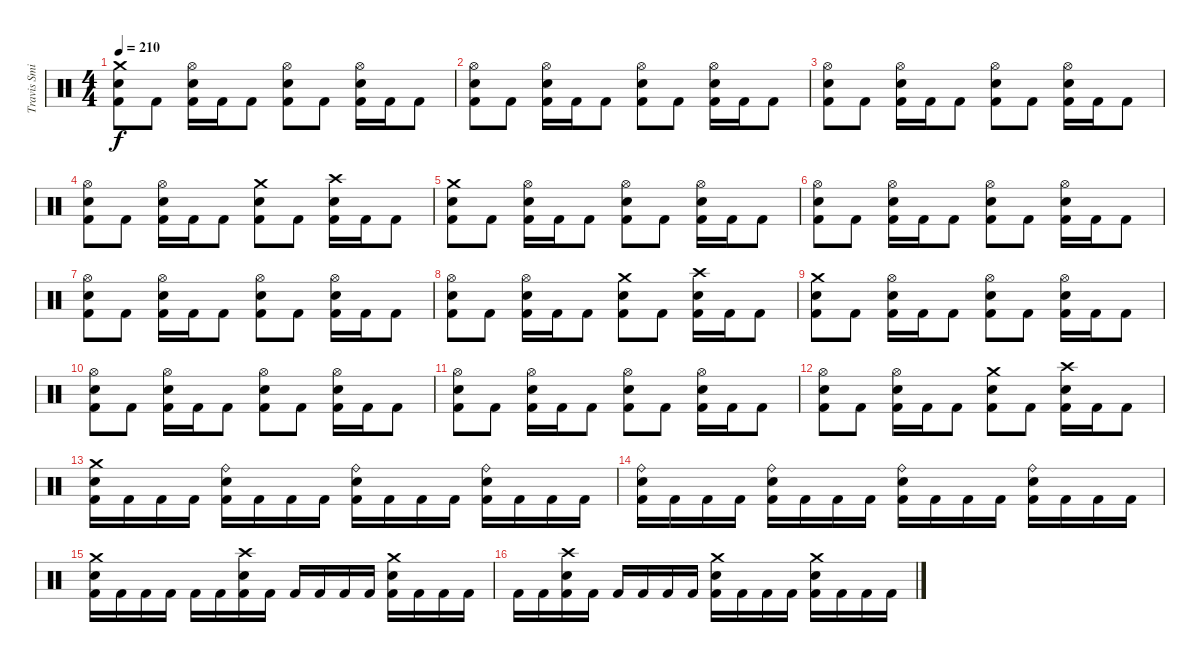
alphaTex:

\track ("Travis Smith" "Travis Smi") {instrument percussion}
\staff {score}
\articulation defaults
\ts (4 4)
\tempo 210
\clef neutral
\ks c
("Crash medium (hit)" "Electric Snare (hit)" "Kick (hit) 2").8{dy f} "Kick (hit) 2".8 ("Hi-Hat (open)" "Electric Snare (hit)" "Kick (hit) 2").16 "Kick (hit) 2".16 "Kick (hit) 2".8 ("Hi-Hat (open)" "Electric Snare (hit)" "Kick (hit) 2").8 "Kick (hit) 2".8 ("Hi-Hat (open)" "Electric Snare (hit)" "Kick (hit) 2").16 "Kick (hit) 2".16 "Kick (hit) 2".8 |
("Hi-Hat (open)" "Electric Snare (hit)" "Kick (hit) 2").8 "Kick (hit) 2".8 ("Hi-Hat (open)" "Electric Snare (hit)" "Kick (hit) 2").16 "Kick (hit) 2".16 "Kick (hit) 2".8 ("Hi-Hat (open)" "Electric Snare (hit)" "Kick (hit) 2").8 "Kick (hit) 2".8 ("Hi-Hat (open)" "Electric Snare (hit)" "Kick (hit) 2").16 "Kick (hit) 2".16 "Kick (hit) 2".8 |
("Hi-Hat (open)" "Electric Snare (hit)" "Kick (hit) 2").8 "Kick (hit) 2".8 ("Hi-Hat (open)" "Electric Snare (hit)" "Kick (hit) 2").16 "Kick (hit) 2".16 "Kick (hit) 2".8 ("Hi-Hat (open)" "Electric Snare (hit)" "Kick (hit) 2").8 "Kick (hit) 2".8 ("Hi-Hat (open)" "Electric Snare (hit)" "Kick (hit) 2").16 "Kick (hit) 2".16 "Kick (hit) 2".8 |
("Hi-Hat (open)" "Electric Snare (hit)" "Kick (hit) 2").8 "Kick (hit) 2".8 ("Hi-Hat (open)" "Electric Snare (hit)" "Kick (hit) 2").16 "Kick (hit) 2".16 "Kick (hit) 2".8 ("Crash medium (hit)" "Electric Snare (hit)" "Kick (hit) 2").8 "Kick (hit) 2".8 ("Crash high (hit)" "Electric Snare (hit)" "Kick (hit) 2").16 "Kick (hit) 2".16 "Kick (hit) 2".8 |
("Crash medium (hit)" "Electric Snare (hit)" "Kick (hit) 2").8 "Kick (hit) 2".8 ("Hi-Hat (open)" "Electric Snare (hit)" "Kick (hit) 2").16 "Kick (hit) 2".16 "Kick (hit) 2".8 ("Hi-Hat (open)" "Electric Snare (hit)" "Kick (hit) 2").8 "Kick (hit) 2".8 ("Hi-Hat (open)" "Electric Snare (hit)" "Kick (hit) 2").16 "Kick (hit) 2".16 "Kick (hit) 2".8 |
("Hi-Hat (open)" "Electric Snare (hit)" "Kick (hit) 2").8 "Kick (hit) 2".8 ("Hi-Hat (open)" "Electric Snare (hit)" "Kick (hit) 2").16 "Kick (hit) 2".16 "Kick (hit) 2".8 ("Hi-Hat (open)" "Electric Snare (hit)" "Kick (hit) 2").8 "Kick (hit) 2".8 ("Hi-Hat (open)" "Electric Snare (hit)" "Kick (hit) 2").16 "Kick (hit) 2".16 "Kick (hit) 2".8 |
("Hi-Hat (open)" "Electric Snare (hit)" "Kick (hit) 2").8 "Kick (hit) 2".8 ("Hi-Hat (open)" "Electric Snare (hit)" "Kick (hit) 2").16 "Kick (hit) 2".16 "Kick (hit) 2".8 ("Hi-Hat (open)" "Electric Snare (hit)" "Kick (hit) 2").8 "Kick (hit) 2".8 ("Hi-Hat (open)" "Electric Snare (hit)" "Kick (hit) 2").16 "Kick (hit) 2".16 "Kick (hit) 2".8 |
("Hi-Hat (open)" "Electric Snare (hit)" "Kick (hit) 2").8 "Kick (hit) 2".8 ("Hi-Hat (open)" "Electric Snare (hit)" "Kick (hit) 2").16 "Kick (hit) 2".16 "Kick (hit) 2".8 ("Crash medium (hit)" "Electric Snare (hit)" "Kick (hit) 2").8 "Kick (hit) 2".8 ("Crash high (hit)" "Electric Snare (hit)" "Kick (hit) 2").16 "Kick (hit) 2".16 "Kick (hit) 2".8 |
("Crash medium (hit)" "Electric Snare (hit)" "Kick (hit) 2").8 "Kick (hit) 2".8 ("Hi-Hat (open)" "Electric Snare (hit)" "Kick (hit) 2").16 "Kick (hit) 2".16 "Kick (hit) 2".8 ("Hi-Hat (open)" "Electric Snare (hit)" "Kick (hit) 2").8 "Kick (hit) 2".8 ("Hi-Hat (open)" "Electric Snare (hit)" "Kick (hit) 2").16 "Kick (hit) 2".16 "Kick (hit) 2".8 |
("Hi-Hat (open)" "Electric Snare (hit)" "Kick (hit) 2").8 "Kick (hit) 2".8 ("Hi-Hat (open)" "Electric Snare (hit)" "Kick (hit) 2").16 "Kick (hit) 2".16 "Kick (hit) 2".8 ("Hi-Hat (open)" "Electric Snare (hit)" "Kick (hit) 2").8 "Kick (hit) 2".8 ("Hi-Hat (open)" "Electric Snare (hit)" "Kick (hit) 2").16 "Kick (hit) 2".16 "Kick (hit) 2".8 |
("Hi-Hat (open)" "Electric Snare (hit)" "Kick (hit) 2").8 "Kick (hit) 2".8 ("Hi-Hat (open)" "Electric Snare (hit)" "Kick (hit) 2").16 "Kick (hit) 2".16 "Kick (hit) 2".8 ("Hi-Hat (open)" "Electric Snare (hit)" "Kick (hit) 2").8 "Kick (hit) 2".8 ("Hi-Hat (open)" "Electric Snare (hit)" "Kick (hit) 2").16 "Kick (hit) 2".16 "Kick (hit) 2".8 |
("Hi-Hat (open)" "Electric Snare (hit)" "Kick (hit) 2").8 "Kick (hit) 2".8 ("Hi-Hat (open)" "Electric Snare (hit)" "Kick (hit) 2").16 "Kick (hit) 2".16 "Kick (hit) 2".8 ("Crash medium (hit)" "Electric Snare (hit)" "Kick (hit) 2").8 "Kick (hit) 2".8 ("Crash high (hit)" "Electric Snare (hit)" "Kick (hit) 2").16 "Kick (hit) 2".16 "Kick (hit) 2".8 |
("Crash medium (hit)" "Electric Snare (hit)" "Kick (hit) 2").16 "Kick (hit) 2".16 "Kick (hit) 2".16 "Kick (hit) 2".16 ("Ride (bell)" "Electric Snare (hit)" "Kick (hit) 2").16 "Kick (hit) 2".16 "Kick (hit) 2".16 "Kick (hit) 2".16 ("Ride (bell)" "Electric Snare (hit)" "Kick (hit) 2").16 "Kick (hit) 2".16 "Kick (hit) 2".16 "Kick (hit) 2".16 ("Ride (bell)" "Electric Snare (hit)" "Kick (hit) 2").16 "Kick (hit) 2".16 "Kick (hit) 2".16 "Kick (hit) 2".16 |
("Ride (bell)" "Electric Snare (hit)" "Kick (hit) 2").16 "Kick (hit) 2".16 "Kick (hit) 2".16 "Kick (hit) 2".16 ("Ride (bell)" "Electric Snare (hit)" "Kick (hit) 2").16 "Kick (hit) 2".16 "Kick (hit) 2".16 "Kick (hit) 2".16 ("Ride (bell)" "Electric Snare (hit)" "Kick (hit) 2").16 "Kick (hit) 2".16 "Kick (hit) 2".16 "Kick (hit) 2".16 ("Ride (bell)" "Electric Snare (hit)" "Kick (hit) 2").16 "Kick (hit) 2".16 "Kick (hit) 2".16 "Kick (hit) 2".16 |
("Crash medium (hit)" "Electric Snare (hit)" "Kick (hit) 2").16 "Kick (hit) 2".16 "Kick (hit) 2".16 "Kick (hit) 2".16 "Kick (hit) 2".16 "Kick (hit) 2".16 ("Crash high (hit)" "Electric Snare (hit)" "Kick (hit) 2").16 "Kick (hit) 2".16 "Kick (hit) 2".16 "Kick (hit) 2".16 "Kick (hit) 2".16 "Kick (hit) 2".16 ("Crash medium (hit)" "Electric Snare (hit)" "Kick (hit) 2").16 "Kick (hit) 2".16 "Kick (hit) 2".16 "Kick (hit) 2".16 |
"Kick (hit) 2".16 "Kick (hit) 2".16 ("Crash high (hit)" "Electric Snare (hit)" "Kick (hit) 2").16 "Kick (hit) 2".16 "Kick (hit) 2".16 "Kick (hit) 2".16 "Kick (hit) 2".16 "Kick (hit) 2".16 ("Crash medium (hit)" "Electric Snare (hit)" "Kick (hit) 2").16 "Kick (hit) 2".16 "Kick (hit) 2".16 "Kick (hit) 2".16 ("Crash medium (hit)" "Electric Snare (hit)" "Kick (hit) 2").16 "Kick (hit) 2".16 "Kick (hit) 2".16 "Kick (hit) 2".16
